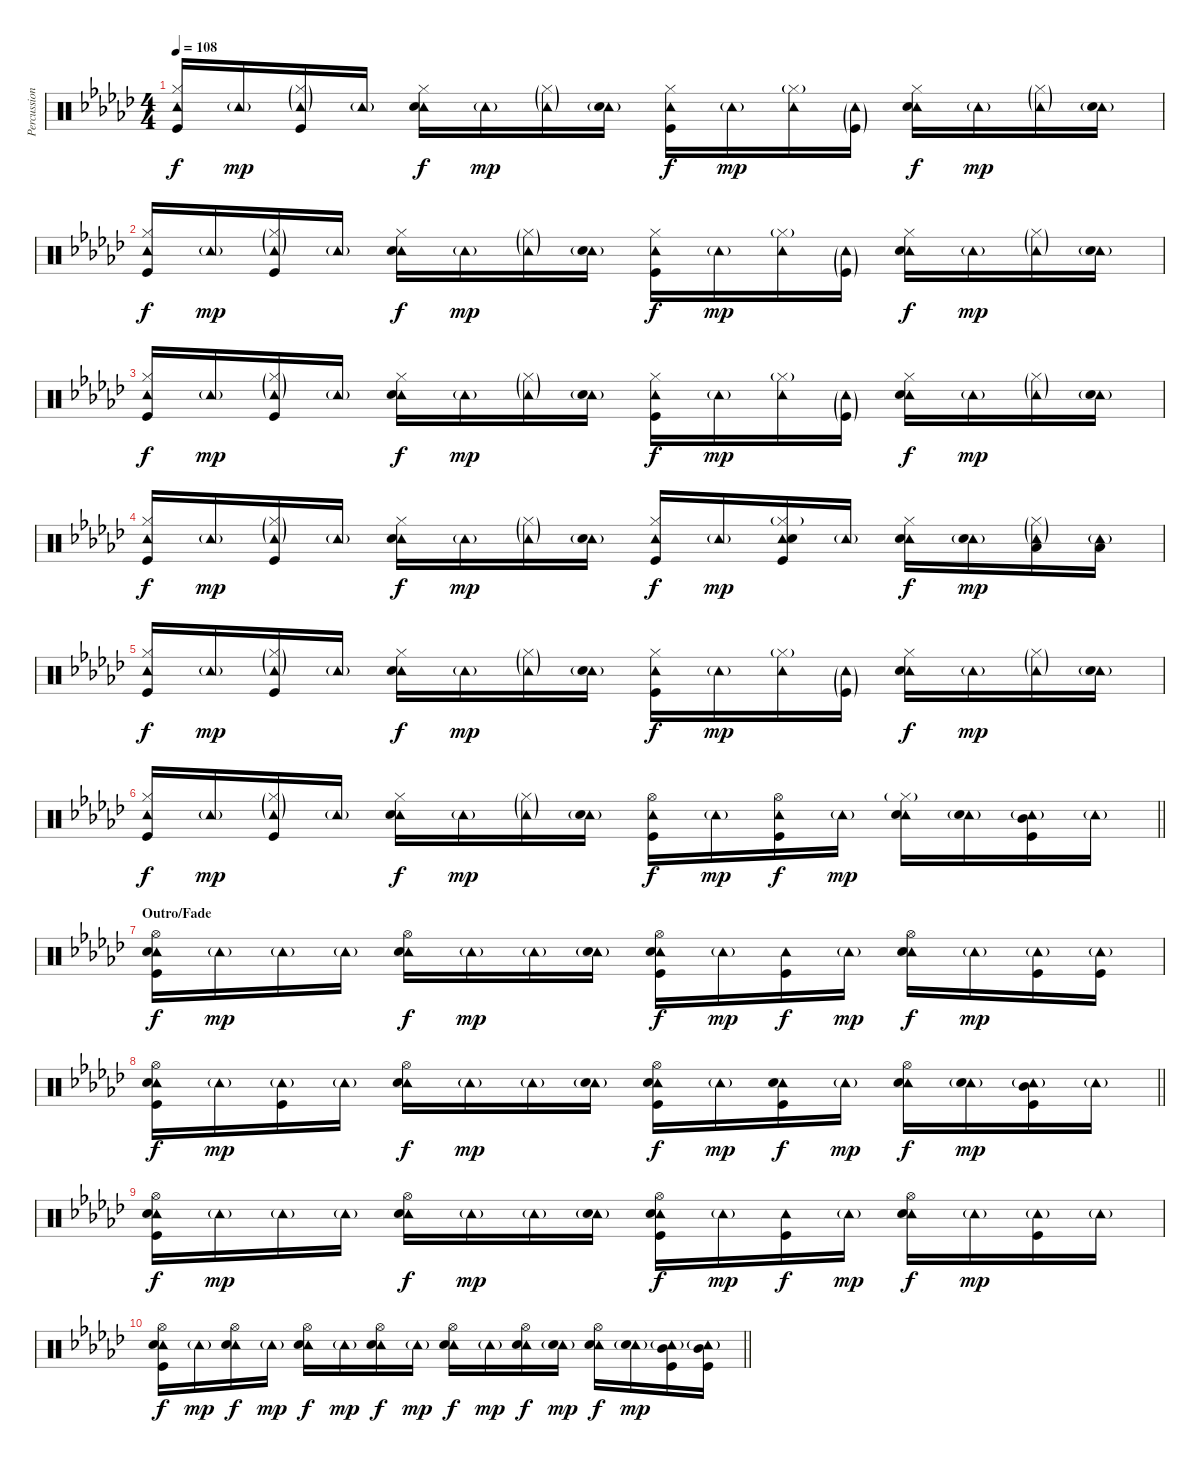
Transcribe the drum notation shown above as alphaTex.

\track ("Percussion" "Percussion") {instrument percussion}
\staff {score}
\articulation defaults
\ts (4 4)
\tempo 108
\clef neutral
\ks gb
("Tambourine (hit)" "Hi-Hat (closed)" "Kick (hit)").16{dy f} "Tambourine (hit)"{g}.16{dy mp} ("Tambourine (hit)"{g} "Hi-Hat (closed)"{g} "Kick (hit)").16 "Tambourine (hit)"{g}.16 ("Tambourine (hit)" "Hi-Hat (closed)" "Snare (hit) 2").16{dy f} "Tambourine (hit)"{g}.16{dy mp} ("Tambourine (hit)"{g} "Hi-Hat (closed)"{g}).16 ("Tambourine (hit)"{g} "Snare (hit) 2"{g}).16 ("Tambourine (hit)" "Hi-Hat (closed)" "Kick (hit)").16{dy f} "Tambourine (hit)"{g}.16{dy mp} ("Tambourine (hit)" "Hi-Hat (closed)"{g}).16 ("Tambourine (hit)"{g} "Kick (hit)"{g}).16 ("Tambourine (hit)" "Hi-Hat (closed)" "Snare (hit) 2").16{dy f} "Tambourine (hit)"{g}.16{dy mp} ("Tambourine (hit)"{g} "Hi-Hat (closed)"{g}).16 ("Tambourine (hit)"{g} "Snare (hit) 2"{g}).16 |
("Tambourine (hit)" "Hi-Hat (closed)" "Kick (hit)").16{dy f} "Tambourine (hit)"{g}.16{dy mp} ("Tambourine (hit)"{g} "Hi-Hat (closed)"{g} "Kick (hit)").16 "Tambourine (hit)"{g}.16 ("Tambourine (hit)" "Hi-Hat (closed)" "Snare (hit) 2").16{dy f} "Tambourine (hit)"{g}.16{dy mp} ("Tambourine (hit)"{g} "Hi-Hat (closed)"{g}).16 ("Tambourine (hit)"{g} "Snare (hit) 2"{g}).16 ("Tambourine (hit)" "Hi-Hat (closed)" "Kick (hit)").16{dy f} "Tambourine (hit)"{g}.16{dy mp} ("Tambourine (hit)" "Hi-Hat (closed)"{g}).16 ("Tambourine (hit)"{g} "Kick (hit)"{g}).16 ("Tambourine (hit)" "Hi-Hat (closed)" "Snare (hit) 2").16{dy f} "Tambourine (hit)"{g}.16{dy mp} ("Tambourine (hit)"{g} "Hi-Hat (closed)"{g}).16 ("Tambourine (hit)"{g} "Snare (hit) 2"{g}).16 |
("Tambourine (hit)" "Hi-Hat (closed)" "Kick (hit)").16{dy f} "Tambourine (hit)"{g}.16{dy mp} ("Tambourine (hit)"{g} "Hi-Hat (closed)"{g} "Kick (hit)").16 "Tambourine (hit)"{g}.16 ("Tambourine (hit)" "Hi-Hat (closed)" "Snare (hit) 2").16{dy f} "Tambourine (hit)"{g}.16{dy mp} ("Tambourine (hit)"{g} "Hi-Hat (closed)"{g}).16 ("Tambourine (hit)"{g} "Snare (hit) 2"{g}).16 ("Tambourine (hit)" "Hi-Hat (closed)" "Kick (hit)").16{dy f} "Tambourine (hit)"{g}.16{dy mp} ("Tambourine (hit)" "Hi-Hat (closed)"{g}).16 ("Tambourine (hit)"{g} "Kick (hit)"{g}).16 ("Tambourine (hit)" "Hi-Hat (closed)" "Snare (hit) 2").16{dy f} "Tambourine (hit)"{g}.16{dy mp} ("Tambourine (hit)"{g} "Hi-Hat (closed)"{g}).16 ("Tambourine (hit)"{g} "Snare (hit) 2"{g}).16 |
("Tambourine (hit)" "Hi-Hat (closed)" "Kick (hit)").16{dy f} "Tambourine (hit)"{g}.16{dy mp} ("Tambourine (hit)"{g} "Hi-Hat (closed)"{g} "Kick (hit)").16 "Tambourine (hit)"{g}.16 ("Tambourine (hit)" "Hi-Hat (closed)" "Snare (hit) 2").16{dy f} "Tambourine (hit)"{g}.16{dy mp} ("Tambourine (hit)"{g} "Hi-Hat (closed)"{g}).16 ("Tambourine (hit)"{g} "Snare (hit) 2"{g}).16 ("Tambourine (hit)" "Hi-Hat (closed)" "Kick (hit)").16{dy f} "Tambourine (hit)"{g}.16{dy mp} ("Tambourine (hit)" "Hi-Hat (closed)"{g} "Snare (hit) 2" "Kick (hit)").16 "Tambourine (hit)"{g}.16 ("Tambourine (hit)" "Hi-Hat (closed)" "Snare (hit) 2").16{dy f} ("Tambourine (hit)"{g} "Snare (hit) 2").16{dy mp} ("Tambourine (hit)"{g} "Hi-Hat (closed)"{g} "Low Tom (hit)").16 ("Tambourine (hit)"{g} "Low Tom (hit)").16 |
("Tambourine (hit)" "Hi-Hat (closed)" "Kick (hit)").16{dy f} "Tambourine (hit)"{g}.16{dy mp} ("Tambourine (hit)"{g} "Hi-Hat (closed)"{g} "Kick (hit)").16 "Tambourine (hit)"{g}.16 ("Tambourine (hit)" "Hi-Hat (closed)" "Snare (hit) 2").16{dy f} "Tambourine (hit)"{g}.16{dy mp} ("Tambourine (hit)"{g} "Hi-Hat (closed)"{g}).16 ("Tambourine (hit)"{g} "Snare (hit) 2"{g}).16 ("Tambourine (hit)" "Hi-Hat (closed)" "Kick (hit)").16{dy f} "Tambourine (hit)"{g}.16{dy mp} ("Tambourine (hit)" "Hi-Hat (closed)"{g}).16 ("Tambourine (hit)"{g} "Kick (hit)"{g}).16 ("Tambourine (hit)" "Hi-Hat (closed)" "Snare (hit) 2").16{dy f} "Tambourine (hit)"{g}.16{dy mp} ("Tambourine (hit)"{g} "Hi-Hat (closed)"{g}).16 ("Tambourine (hit)"{g} "Snare (hit) 2"{g}).16 |
\barLineRight lightlight
("Tambourine (hit)" "Hi-Hat (closed)" "Kick (hit)").16{dy f} "Tambourine (hit)"{g}.16{dy mp} ("Tambourine (hit)"{g} "Hi-Hat (closed)"{g} "Kick (hit)").16 "Tambourine (hit)"{g}.16 ("Tambourine (hit)" "Hi-Hat (closed)" "Snare (hit) 2").16{dy f} "Tambourine (hit)"{g}.16{dy mp} ("Tambourine (hit)"{g} "Hi-Hat (closed)"{g}).16 ("Tambourine (hit)"{g} "Snare (hit) 2"{g}).16 ("Tambourine (hit)" "Hi-Hat (open)" "Kick (hit)").16{dy f} "Tambourine (hit)"{g}.16{dy mp} ("Tambourine (hit)" "Hi-Hat (open)" "Kick (hit)").16{dy f} "Tambourine (hit)"{g}.16{dy mp} ("Tambourine (hit)" "Hi-Hat (closed)"{g} "Snare (hit) 2").16 ("Tambourine (hit)"{g} "Snare (hit) 2").16 ("Tambourine (hit)"{g} "Mid Tom (hit)" "Kick (hit)").16 "Tambourine (hit)"{g}.16 |
\section ("" "Outro/Fade")
("Tambourine (hit)" "Hi-Hat (open)" "Snare (hit) 2" "Kick (hit)").16{dy f} "Tambourine (hit)"{g}.16{dy mp} "Tambourine (hit)"{g}.16 "Tambourine (hit)"{g}.16 ("Tambourine (hit)" "Hi-Hat (open)" "Snare (hit) 2").16{dy f} "Tambourine (hit)"{g}.16{dy mp} "Tambourine (hit)"{g}.16 ("Tambourine (hit)"{g} "Snare (hit) 2").16 ("Tambourine (hit)" "Hi-Hat (open)" "Snare (hit) 2" "Kick (hit)").16{dy f} "Tambourine (hit)"{g}.16{dy mp} ("Tambourine (hit)" "Kick (hit)").16{dy f} "Tambourine (hit)"{g}.16{dy mp} ("Tambourine (hit)" "Hi-Hat (open)" "Snare (hit) 2").16{dy f} "Tambourine (hit)"{g}.16{dy mp} ("Tambourine (hit)"{g} "Kick (hit)").16 ("Tambourine (hit)"{g} "Kick (hit)").16 |
\barLineRight lightlight
("Tambourine (hit)" "Hi-Hat (open)" "Snare (hit) 2" "Kick (hit)").16{dy f} "Tambourine (hit)"{g}.16{dy mp} ("Tambourine (hit)"{g} "Kick (hit)").16 "Tambourine (hit)"{g}.16 ("Tambourine (hit)" "Hi-Hat (open)" "Snare (hit) 2").16{dy f} "Tambourine (hit)"{g}.16{dy mp} "Tambourine (hit)"{g}.16 ("Tambourine (hit)"{g} "Snare (hit) 2"{g}).16 ("Tambourine (hit)" "Hi-Hat (open)" "Snare (hit) 2" "Kick (hit)").16{dy f} "Tambourine (hit)"{g}.16{dy mp} ("Tambourine (hit)" "Snare (hit) 2" "Kick (hit)").16{dy f} "Tambourine (hit)"{g}.16{dy mp} ("Tambourine (hit)" "Hi-Hat (open)" "Snare (hit) 2").16{dy f} ("Tambourine (hit)"{g} "Snare (hit) 2").16{dy mp} ("Tambourine (hit)"{g} "Mid Tom (hit)" "Kick (hit)").16 "Tambourine (hit)"{g}.16 |
("Tambourine (hit)" "Hi-Hat (open)" "Snare (hit) 2" "Kick (hit)").16{dy f} "Tambourine (hit)"{g}.16{dy mp} "Tambourine (hit)"{g}.16 "Tambourine (hit)"{g}.16 ("Tambourine (hit)" "Hi-Hat (open)" "Snare (hit) 2").16{dy f} "Tambourine (hit)"{g}.16{dy mp} "Tambourine (hit)"{g}.16 ("Tambourine (hit)"{g} "Snare (hit) 2"{g}).16 ("Tambourine (hit)" "Hi-Hat (open)" "Snare (hit) 2" "Kick (hit)").16{dy f} "Tambourine (hit)"{g}.16{dy mp} ("Tambourine (hit)" "Kick (hit)").16{dy f} "Tambourine (hit)"{g}.16{dy mp} ("Tambourine (hit)" "Hi-Hat (open)" "Snare (hit) 2").16{dy f} "Tambourine (hit)"{g}.16{dy mp} ("Tambourine (hit)"{g} "Kick (hit)").16 "Tambourine (hit)"{g}.16 |
\barLineRight lightlight
("Tambourine (hit)" "Hi-Hat (open)" "Snare (hit) 2" "Kick (hit)").16{dy f} "Tambourine (hit)"{g}.16{dy mp} ("Tambourine (hit)" "Hi-Hat (open)" "Snare (hit) 2").16{dy f} "Tambourine (hit)"{g}.16{dy mp} ("Tambourine (hit)" "Hi-Hat (open)" "Snare (hit) 2").16{dy f} "Tambourine (hit)"{g}.16{dy mp} ("Tambourine (hit)" "Hi-Hat (open)" "Snare (hit) 2").16{dy f} "Tambourine (hit)"{g}.16{dy mp} ("Tambourine (hit)" "Hi-Hat (open)" "Snare (hit) 2").16{dy f} "Tambourine (hit)"{g}.16{dy mp} ("Tambourine (hit)" "Hi-Hat (open)" "Snare (hit) 2").16{dy f} ("Tambourine (hit)"{g} "Snare (hit) 2"{g}).16{dy mp} ("Tambourine (hit)" "Hi-Hat (open)" "Snare (hit) 2").16{dy f} ("Tambourine (hit)"{g} "Snare (hit) 2").16{dy mp} ("Tambourine (hit)"{g} "Mid Tom (hit)" "Kick (hit)").16 ("Tambourine (hit)"{g} "Mid Tom (hit)" "Kick (hit)").16
